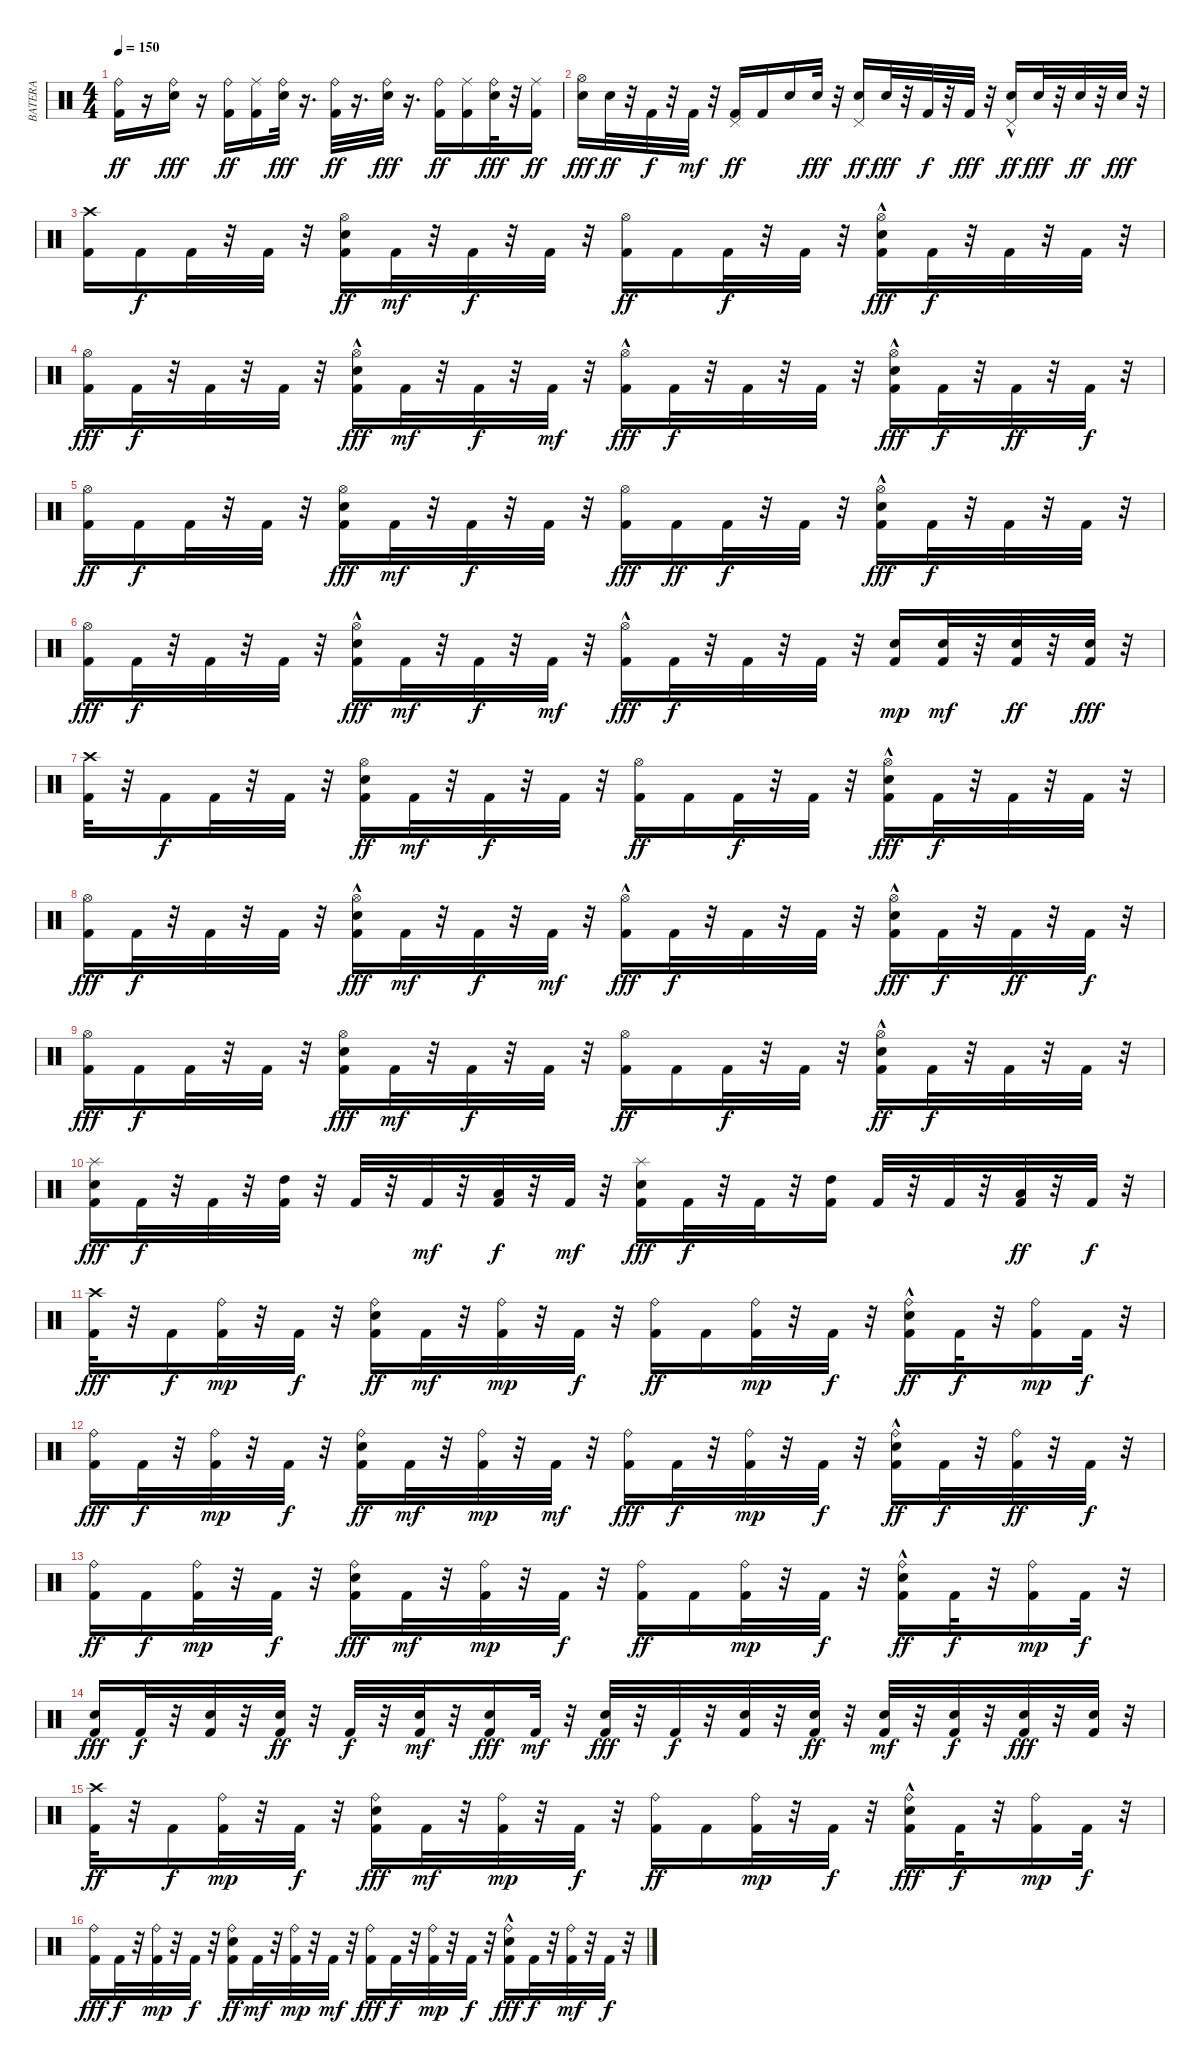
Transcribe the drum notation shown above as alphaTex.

\track ("BATERA" "BATERA") {instrument percussion}
\staff {score}
\articulation defaults
\ts (4 4)
\tempo 150
\clef neutral
\ks c
("Ride (bell)" "Kick (hit) 2").16{dy ff} r.16 ("Electric Snare (hit)" "Ride (bell)").16{dy fff} r.16 ("Ride (bell)" "Kick (hit) 2").16{dy ff} ("Ride (middle)" "Kick (hit) 2").16 ("Electric Snare (hit)" "Ride (bell)").32{dy fff} r.16{d} ("Ride (bell)" "Kick (hit) 2").32{dy ff} r.16{d} ("Electric Snare (hit)" "Ride (bell)").32{dy fff} r.16{d} ("Ride (bell)" "Kick (hit) 2").16{dy ff} ("Kick (hit) 2" "Ride (middle)").16 ("Ride (bell)" "Electric Snare (hit)").32{dy fff} r.32 ("Kick (hit) 2" "Ride (middle)").16{dy ff} |
("Electric Snare (hit)" "Hi-Hat (open)").16{dy fff} "Electric Snare (hit)".32{dy ff} r.32 "Kick (hit) 2".32{dy f} r.32 "Kick (hit) 2".32{dy mf} r.32 ("Kick (hit) 2" "Pedal Hi-Hat (hit)").16{dy ff} "Kick (hit) 2".16 "Electric Snare (hit)".16 "Electric Snare (hit)".32{dy fff} r.32 ("Electric Snare (hit)" "Pedal Hi-Hat (hit)").16{dy ff} "Electric Snare (hit)".32{dy fff} r.32 "Kick (hit) 2".32{dy f} r.32 "Kick (hit) 2".32{dy fff} r.32 ("Electric Snare (hit)" "Pedal Hi-Hat (hit)"{hac}).16{dy ff} "Electric Snare (hit)".32{dy fff} r.32 "Electric Snare (hit)".32{dy ff} r.32 "Electric Snare (hit)".32{dy fff} r.32 |
("Kick (hit) 2" "Crash high (hit)").16 "Kick (hit) 2".16{dy f} "Kick (hit) 2".32 r.32 "Kick (hit) 2".32 r.32 ("Electric Snare (hit)" "Hi-Hat (open)" "Kick (hit) 2").16{dy ff} "Kick (hit) 2".32{dy mf} r.32 "Kick (hit) 2".32{dy f} r.32 "Kick (hit) 2".32 r.32 ("Hi-Hat (open)" "Kick (hit) 2").16{dy ff} "Kick (hit) 2".16 "Kick (hit) 2".32{dy f} r.32 "Kick (hit) 2".32 r.32 ("Kick (hit) 2" "Electric Snare (hit)"{hac} "Hi-Hat (open)").16{dy fff} "Kick (hit) 2".32{dy f} r.32 "Kick (hit) 2".32 r.32 "Kick (hit) 2".32 r.32 |
("Hi-Hat (open)" "Kick (hit) 2").16{dy fff} "Kick (hit) 2".32{dy f} r.32 "Kick (hit) 2".32 r.32 "Kick (hit) 2".32 r.32 ("Kick (hit) 2" "Hi-Hat (open)"{hac} "Electric Snare (hit)").16{dy fff} "Kick (hit) 2".32{dy mf} r.32 "Kick (hit) 2".32{dy f} r.32 "Kick (hit) 2".32{dy mf} r.32 ("Hi-Hat (open)"{hac} "Kick (hit) 2").16{dy fff} "Kick (hit) 2".32{dy f} r.32 "Kick (hit) 2".32 r.32 "Kick (hit) 2".32 r.32 ("Electric Snare (hit)"{hac} "Hi-Hat (open)"{hac} "Kick (hit) 2").16{dy fff} "Kick (hit) 2".32{dy f} r.32 "Kick (hit) 2".32{dy ff} r.32 "Kick (hit) 2".32{dy f} r.32 |
("Hi-Hat (open)" "Kick (hit) 2").16{dy ff} "Kick (hit) 2".16{dy f} "Kick (hit) 2".32 r.32 "Kick (hit) 2".32 r.32 ("Kick (hit) 2" "Hi-Hat (open)" "Electric Snare (hit)").16{dy fff} "Kick (hit) 2".32{dy mf} r.32 "Kick (hit) 2".32{dy f} r.32 "Kick (hit) 2".32 r.32 ("Kick (hit) 2" "Hi-Hat (open)").16{dy fff} "Kick (hit) 2".16{dy ff} "Kick (hit) 2".32{dy f} r.32 "Kick (hit) 2".32 r.32 ("Kick (hit) 2" "Hi-Hat (open)" "Electric Snare (hit)"{hac}).16{dy fff} "Kick (hit) 2".32{dy f} r.32 "Kick (hit) 2".32 r.32 "Kick (hit) 2".32 r.32 |
("Kick (hit) 2" "Hi-Hat (open)").16{dy fff} "Kick (hit) 2".32{dy f} r.32 "Kick (hit) 2".32 r.32 "Kick (hit) 2".32 r.32 ("Electric Snare (hit)" "Kick (hit) 2" "Hi-Hat (open)"{hac}).16{dy fff} "Kick (hit) 2".32{dy mf} r.32 "Kick (hit) 2".32{dy f} r.32 "Kick (hit) 2".32{dy mf} r.32 ("Hi-Hat (open)"{hac} "Kick (hit) 2").16{dy fff} "Kick (hit) 2".32{dy f} r.32 "Kick (hit) 2".32 r.32 "Kick (hit) 2".32 r.32 ("Electric Snare (hit)" "Kick (hit) 2").16{dy mp} ("Electric Snare (hit)" "Kick (hit) 2").32{dy mf} r.32 ("Kick (hit) 2" "Electric Snare (hit)").32{dy ff} r.32 ("Electric Snare (hit)" "Kick (hit) 2").32{dy fff} r.32 |
("Kick (hit) 2" "Crash high (hit)").32 r.32 "Kick (hit) 2".16{dy f} "Kick (hit) 2".32 r.32 "Kick (hit) 2".32 r.32 ("Electric Snare (hit)" "Hi-Hat (open)" "Kick (hit) 2").16{dy ff} "Kick (hit) 2".32{dy mf} r.32 "Kick (hit) 2".32{dy f} r.32 "Kick (hit) 2".32 r.32 ("Hi-Hat (open)" "Kick (hit) 2").16{dy ff} "Kick (hit) 2".16 "Kick (hit) 2".32{dy f} r.32 "Kick (hit) 2".32 r.32 ("Hi-Hat (open)" "Kick (hit) 2" "Electric Snare (hit)"{hac}).16{dy fff} "Kick (hit) 2".32{dy f} r.32 "Kick (hit) 2".32 r.32 "Kick (hit) 2".32 r.32 |
("Hi-Hat (open)" "Kick (hit) 2").16{dy fff} "Kick (hit) 2".32{dy f} r.32 "Kick (hit) 2".32 r.32 "Kick (hit) 2".32 r.32 ("Kick (hit) 2" "Hi-Hat (open)"{hac} "Electric Snare (hit)").16{dy fff} "Kick (hit) 2".32{dy mf} r.32 "Kick (hit) 2".32{dy f} r.32 "Kick (hit) 2".32{dy mf} r.32 ("Kick (hit) 2" "Hi-Hat (open)"{hac}).16{dy fff} "Kick (hit) 2".32{dy f} r.32 "Kick (hit) 2".32 r.32 "Kick (hit) 2".32 r.32 ("Hi-Hat (open)"{hac} "Kick (hit) 2" "Electric Snare (hit)"{hac}).16{dy fff} "Kick (hit) 2".32{dy f} r.32 "Kick (hit) 2".32{dy ff} r.32 "Kick (hit) 2".32{dy f} r.32 |
("Kick (hit) 2" "Hi-Hat (open)").16{dy fff} "Kick (hit) 2".16{dy f} "Kick (hit) 2".32 r.32 "Kick (hit) 2".32 r.32 ("Hi-Hat (open)" "Kick (hit) 2" "Electric Snare (hit)").16{dy fff} "Kick (hit) 2".32{dy mf} r.32 "Kick (hit) 2".32{dy f} r.32 "Kick (hit) 2".32 r.32 ("Hi-Hat (open)" "Kick (hit) 2").16{dy ff} "Kick (hit) 2".16 "Kick (hit) 2".32{dy f} r.32 "Kick (hit) 2".32 r.32 ("Hi-Hat (open)" "Electric Snare (hit)"{hac} "Kick (hit) 2").16{dy ff} "Kick (hit) 2".32{dy f} r.32 "Kick (hit) 2".32 r.32 "Kick (hit) 2".32 r.32 |
("Splash (hit)" "Electric Snare (hit)" "Kick (hit) 2").16{dy fff} "Kick (hit) 2".32{dy f} r.32 "Kick (hit) 2".32 r.32 ("High Tom (hit)" "Kick (hit) 2").32 r.32 "Kick (hit) 2".32 r.32 "Kick (hit) 2".32{dy mf} r.32 ("Kick (hit) 2" "Low Tom (hit)").32{dy f} r.32 "Kick (hit) 2".32{dy mf} r.32 ("Electric Snare (hit)" "Splash (hit)" "Kick (hit) 2").16{dy fff} "Kick (hit) 2".32{dy f} r.32 "Kick (hit) 2".32 r.32 ("Kick (hit) 2" "High Tom (hit)").16 "Kick (hit) 2".32 r.32 "Kick (hit) 2".32 r.32 ("Low Tom (hit)" "Kick (hit) 2").32{dy ff} r.32 "Kick (hit) 2".32{dy f} r.32 |
("Kick (hit) 2" "Crash high (hit)").32{dy fff} r.32 "Kick (hit) 2".16{dy f} ("Ride (bell)" "Kick (hit) 2").32{dy mp} r.32 "Kick (hit) 2".32{dy f} r.32 ("Ride (bell)" "Electric Snare (hit)" "Kick (hit) 2").16{dy ff} "Kick (hit) 2".32{dy mf} r.32 ("Ride (bell)" "Kick (hit) 2").32{dy mp} r.32 "Kick (hit) 2".32{dy f} r.32 ("Kick (hit) 2" "Ride (bell)").16{dy ff} "Kick (hit) 2".16 ("Kick (hit) 2" "Ride (bell)").32{dy mp} r.32 "Kick (hit) 2".32{dy f} r.32 ("Electric Snare (hit)"{hac} "Ride (bell)" "Kick (hit) 2").16{dy ff} "Kick (hit) 2".32{dy f} r.32 ("Ride (bell)" "Kick (hit) 2").16{dy mp} "Kick (hit) 2".32{dy f} r.32 |
("Ride (bell)" "Kick (hit) 2").16{dy fff} "Kick (hit) 2".32{dy f} r.32 ("Kick (hit) 2" "Ride (bell)").32{dy mp} r.32 "Kick (hit) 2".32{dy f} r.32 ("Electric Snare (hit)" "Kick (hit) 2" "Ride (bell)").16{dy ff} "Kick (hit) 2".32{dy mf} r.32 ("Ride (bell)" "Kick (hit) 2").32{dy mp} r.32 "Kick (hit) 2".32{dy mf} r.32 ("Ride (bell)" "Kick (hit) 2").16{dy fff} "Kick (hit) 2".32{dy f} r.32 ("Ride (bell)" "Kick (hit) 2").32{dy mp} r.32 "Kick (hit) 2".32{dy f} r.32 ("Electric Snare (hit)"{hac} "Kick (hit) 2" "Ride (bell)").16{dy ff} "Kick (hit) 2".32{dy f} r.32 ("Ride (bell)" "Kick (hit) 2").32{dy ff} r.32 "Kick (hit) 2".32{dy f} r.32 |
("Ride (bell)" "Kick (hit) 2").16{dy ff} "Kick (hit) 2".16{dy f} ("Ride (bell)" "Kick (hit) 2").32{dy mp} r.32 "Kick (hit) 2".32{dy f} r.32 ("Electric Snare (hit)" "Kick (hit) 2" "Ride (bell)").16{dy fff} "Kick (hit) 2".32{dy mf} r.32 ("Ride (bell)" "Kick (hit) 2").32{dy mp} r.32 "Kick (hit) 2".32{dy f} r.32 ("Ride (bell)" "Kick (hit) 2").16{dy ff} "Kick (hit) 2".16 ("Ride (bell)" "Kick (hit) 2").32{dy mp} r.32 "Kick (hit) 2".32{dy f} r.32 ("Electric Snare (hit)"{hac} "Ride (bell)" "Kick (hit) 2").16{dy ff} "Kick (hit) 2".32{dy f} r.32 ("Ride (bell)" "Kick (hit) 2").16{dy mp} "Kick (hit) 2".32{dy f} r.32 |
("Kick (hit) 2" "Electric Snare (hit)").16{dy fff} "Kick (hit) 2".32{dy f} r.32 ("Kick (hit) 2" "Electric Snare (hit)").32 r.32 ("Electric Snare (hit)" "Kick (hit) 2").32{dy ff} r.32 "Kick (hit) 2".32{dy f} r.32 ("Kick (hit) 2" "Electric Snare (hit)").32{dy mf} r.32 ("Electric Snare (hit)" "Kick (hit) 2").16{dy fff} "Kick (hit) 2".32{dy mf} r.32 ("Electric Snare (hit)" "Kick (hit) 2").32{dy fff} r.32 "Kick (hit) 2".32{dy f} r.32 ("Kick (hit) 2" "Electric Snare (hit)").32 r.32 ("Kick (hit) 2" "Electric Snare (hit)").32{dy ff} r.32 ("Electric Snare (hit)" "Kick (hit) 2").32{dy mf} r.32 ("Electric Snare (hit)" "Kick (hit) 2").32{dy f} r.32 ("Kick (hit) 2" "Electric Snare (hit)").32{dy fff} r.32 ("Kick (hit) 2" "Electric Snare (hit)").32 r.32 |
("Crash high (hit)" "Kick (hit) 2").32{dy ff} r.32 "Kick (hit) 2".16{dy f} ("Kick (hit) 2" "Ride (bell)").32{dy mp} r.32 "Kick (hit) 2".32{dy f} r.32 ("Kick (hit) 2" "Ride (bell)" "Electric Snare (hit)").16{dy fff} "Kick (hit) 2".32{dy mf} r.32 ("Ride (bell)" "Kick (hit) 2").32{dy mp} r.32 "Kick (hit) 2".32{dy f} r.32 ("Ride (bell)" "Kick (hit) 2").16{dy ff} "Kick (hit) 2".16 ("Kick (hit) 2" "Ride (bell)").32{dy mp} r.32 "Kick (hit) 2".32{dy f} r.32 ("Ride (bell)" "Kick (hit) 2" "Electric Snare (hit)"{hac}).16{dy fff} "Kick (hit) 2".32{dy f} r.32 ("Kick (hit) 2" "Ride (bell)").16{dy mp} "Kick (hit) 2".32{dy f} r.32 |
("Ride (bell)" "Kick (hit) 2").16{dy fff} "Kick (hit) 2".32{dy f} r.32 ("Ride (bell)" "Kick (hit) 2").32{dy mp} r.32 "Kick (hit) 2".32{dy f} r.32 ("Kick (hit) 2" "Electric Snare (hit)" "Ride (bell)").16{dy ff} "Kick (hit) 2".32{dy mf} r.32 ("Kick (hit) 2" "Ride (bell)").32{dy mp} r.32 "Kick (hit) 2".32{dy mf} r.32 ("Kick (hit) 2" "Ride (bell)").16{dy fff} "Kick (hit) 2".32{dy f} r.32 ("Kick (hit) 2" "Ride (bell)").32{dy mp} r.32 "Kick (hit) 2".32{dy f} r.32 ("Kick (hit) 2" "Ride (bell)" "Electric Snare (hit)"{hac}).16{dy fff} "Kick (hit) 2".32{dy f} r.32 ("Kick (hit) 2" "Ride (bell)").32{dy mf} r.32 "Kick (hit) 2".32{dy f} r.32
